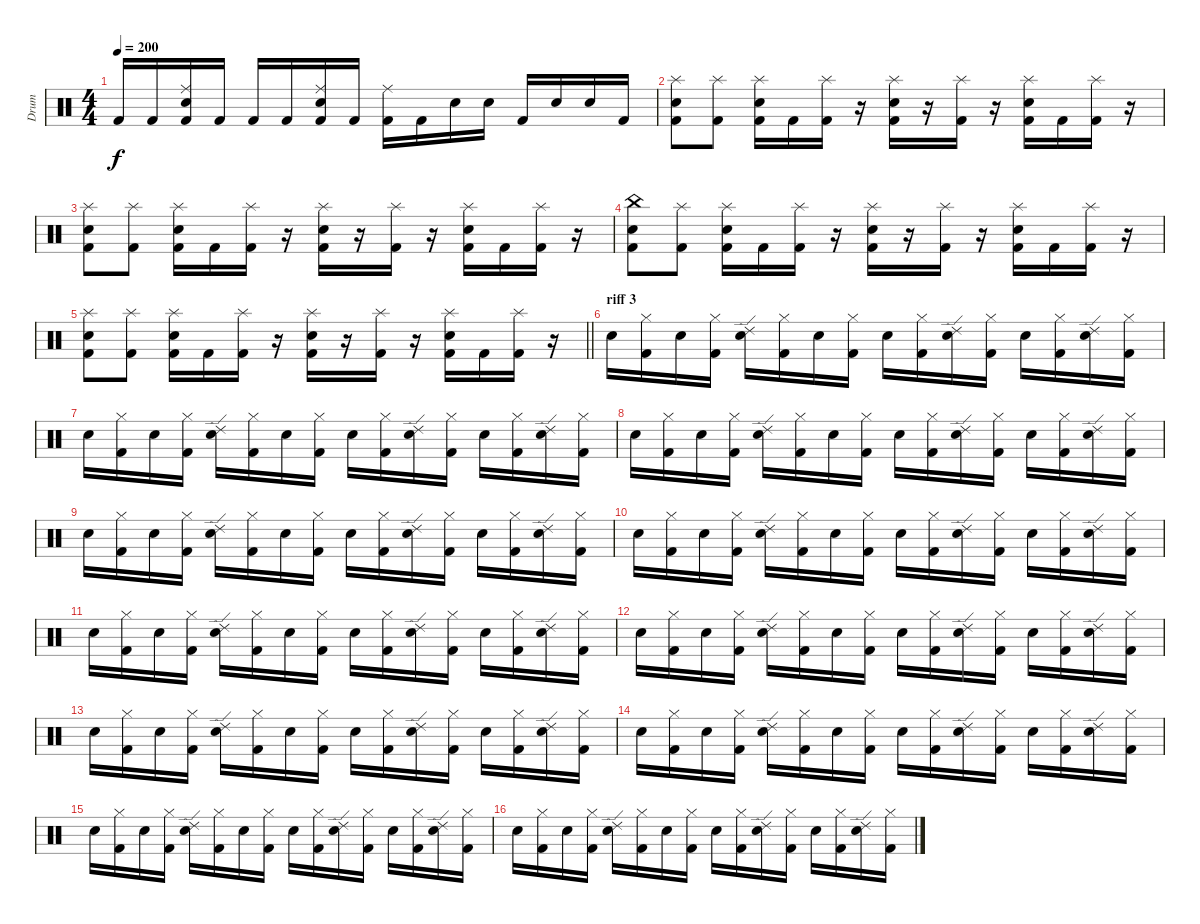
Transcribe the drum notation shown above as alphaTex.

\track ("Drum" "Drum") {instrument percussion}
\staff {score}
\articulation defaults
\ts (4 4)
\tempo 200
\clef neutral
\ks c "Kick (hit) 2".16{dy f} "Kick (hit) 2".16
("Ride (middle)" "Electric Snare (hit)" "Kick (hit) 2").16 "Kick (hit) 2".16 "Kick (hit) 2".16 "Kick (hit) 2".16 ("Ride (middle)" "Electric Snare (hit)" "Kick (hit) 2").16 "Kick (hit) 2".16 ("Ride (middle)" "Kick (hit) 2").16 "Kick (hit) 2".16 "Electric Snare (hit)".16 "Electric Snare (hit)".16 "Kick (hit) 2".16 "Electric Snare (hit)".16 "Electric Snare (hit)".16 "Kick (hit) 2".16 |
("Splash (hit)" "Electric Snare (hit)" "Kick (hit) 2").8 ("Splash (hit)" "Kick (hit) 2").8 ("Splash (hit)" "Electric Snare (hit)" "Kick (hit) 2").16 "Kick (hit) 2".16 ("Splash (hit)" "Kick (hit) 2").16 r.16 ("Splash (hit)" "Electric Snare (hit)" "Kick (hit) 2").16 r.16 ("Splash (hit)" "Kick (hit) 2").16 r.16 ("Splash (hit)" "Electric Snare (hit)" "Kick (hit) 2").16 "Kick (hit) 2".16 ("Splash (hit)" "Kick (hit) 2").16 r.16 |
("Splash (hit)" "Electric Snare (hit)" "Kick (hit) 2").8 ("Splash (hit)" "Kick (hit) 2").8 ("Splash (hit)" "Electric Snare (hit)" "Kick (hit) 2").16 "Kick (hit) 2".16 ("Splash (hit)" "Kick (hit) 2").16 r.16 ("Splash (hit)" "Electric Snare (hit)" "Kick (hit) 2").16 r.16 ("Splash (hit)" "Kick (hit) 2").16 r.16 ("Splash (hit)" "Electric Snare (hit)" "Kick (hit) 2").16 "Kick (hit) 2".16 ("Splash (hit)" "Kick (hit) 2").16 r.16 |
("China (hit)" "Electric Snare (hit)" "Kick (hit) 2").8 ("Splash (hit)" "Kick (hit) 2").8 ("Splash (hit)" "Electric Snare (hit)" "Kick (hit) 2").16 "Kick (hit) 2".16 ("Splash (hit)" "Kick (hit) 2").16 r.16 ("Splash (hit)" "Electric Snare (hit)" "Kick (hit) 2").16 r.16 ("Splash (hit)" "Kick (hit) 2").16 r.16 ("Splash (hit)" "Electric Snare (hit)" "Kick (hit) 2").16 "Kick (hit) 2".16 ("Splash (hit)" "Kick (hit) 2").16 r.16 |
\barLineRight lightlight
("Splash (hit)" "Electric Snare (hit)" "Kick (hit) 2").8 ("Splash (hit)" "Kick (hit) 2").8 ("Splash (hit)" "Electric Snare (hit)" "Kick (hit) 2").16 "Kick (hit) 2".16 ("Splash (hit)" "Kick (hit) 2").16 r.16 ("Splash (hit)" "Electric Snare (hit)" "Kick (hit) 2").16 r.16 ("Splash (hit)" "Kick (hit) 2").16 r.16 ("Splash (hit)" "Electric Snare (hit)" "Kick (hit) 2").16 "Kick (hit) 2".16 ("Splash (hit)" "Kick (hit) 2").16 r.16 |
\section ("" "riff 3")
"Electric Snare (hit)".16 ("Hi-Hat (closed)" "Kick (hit) 2").16 "Electric Snare (hit)".16 ("Hi-Hat (closed)" "Kick (hit) 2").16 ("Ride (edge) 2" "Electric Snare (hit)").16 ("Hi-Hat (closed)" "Kick (hit) 2").16 "Electric Snare (hit)".16 ("Hi-Hat (closed)" "Kick (hit) 2").16 "Electric Snare (hit)".16 ("Hi-Hat (closed)" "Kick (hit) 2").16 ("Ride (edge) 2" "Electric Snare (hit)").16 ("Hi-Hat (closed)" "Kick (hit) 2").16 "Electric Snare (hit)".16 ("Hi-Hat (closed)" "Kick (hit) 2").16 ("Ride (edge) 2" "Electric Snare (hit)").16 ("Hi-Hat (closed)" "Kick (hit) 2").16 |
"Electric Snare (hit)".16 ("Hi-Hat (closed)" "Kick (hit) 2").16 "Electric Snare (hit)".16 ("Hi-Hat (closed)" "Kick (hit) 2").16 ("Ride (edge) 2" "Electric Snare (hit)").16 ("Hi-Hat (closed)" "Kick (hit) 2").16 "Electric Snare (hit)".16 ("Hi-Hat (closed)" "Kick (hit) 2").16 "Electric Snare (hit)".16 ("Hi-Hat (closed)" "Kick (hit) 2").16 ("Ride (edge) 2" "Electric Snare (hit)").16 ("Hi-Hat (closed)" "Kick (hit) 2").16 "Electric Snare (hit)".16 ("Hi-Hat (closed)" "Kick (hit) 2").16 ("Ride (edge) 2" "Electric Snare (hit)").16 ("Hi-Hat (closed)" "Kick (hit) 2").16 |
"Electric Snare (hit)".16 ("Hi-Hat (closed)" "Kick (hit) 2").16 "Electric Snare (hit)".16 ("Hi-Hat (closed)" "Kick (hit) 2").16 ("Ride (edge) 2" "Electric Snare (hit)").16 ("Hi-Hat (closed)" "Kick (hit) 2").16 "Electric Snare (hit)".16 ("Hi-Hat (closed)" "Kick (hit) 2").16 "Electric Snare (hit)".16 ("Hi-Hat (closed)" "Kick (hit) 2").16 ("Ride (edge) 2" "Electric Snare (hit)").16 ("Hi-Hat (closed)" "Kick (hit) 2").16 "Electric Snare (hit)".16 ("Hi-Hat (closed)" "Kick (hit) 2").16 ("Ride (edge) 2" "Electric Snare (hit)").16 ("Hi-Hat (closed)" "Kick (hit) 2").16 |
"Electric Snare (hit)".16 ("Hi-Hat (closed)" "Kick (hit) 2").16 "Electric Snare (hit)".16 ("Hi-Hat (closed)" "Kick (hit) 2").16 ("Ride (edge) 2" "Electric Snare (hit)").16 ("Hi-Hat (closed)" "Kick (hit) 2").16 "Electric Snare (hit)".16 ("Hi-Hat (closed)" "Kick (hit) 2").16 "Electric Snare (hit)".16 ("Hi-Hat (closed)" "Kick (hit) 2").16 ("Ride (edge) 2" "Electric Snare (hit)").16 ("Hi-Hat (closed)" "Kick (hit) 2").16 "Electric Snare (hit)".16 ("Hi-Hat (closed)" "Kick (hit) 2").16 ("Ride (edge) 2" "Electric Snare (hit)").16 ("Hi-Hat (closed)" "Kick (hit) 2").16 |
"Electric Snare (hit)".16 ("Hi-Hat (closed)" "Kick (hit) 2").16 "Electric Snare (hit)".16 ("Hi-Hat (closed)" "Kick (hit) 2").16 ("Ride (edge) 2" "Electric Snare (hit)").16 ("Hi-Hat (closed)" "Kick (hit) 2").16 "Electric Snare (hit)".16 ("Hi-Hat (closed)" "Kick (hit) 2").16 "Electric Snare (hit)".16 ("Hi-Hat (closed)" "Kick (hit) 2").16 ("Ride (edge) 2" "Electric Snare (hit)").16 ("Hi-Hat (closed)" "Kick (hit) 2").16 "Electric Snare (hit)".16 ("Hi-Hat (closed)" "Kick (hit) 2").16 ("Ride (edge) 2" "Electric Snare (hit)").16 ("Hi-Hat (closed)" "Kick (hit) 2").16 |
"Electric Snare (hit)".16 ("Hi-Hat (closed)" "Kick (hit) 2").16 "Electric Snare (hit)".16 ("Hi-Hat (closed)" "Kick (hit) 2").16 ("Ride (edge) 2" "Electric Snare (hit)").16 ("Hi-Hat (closed)" "Kick (hit) 2").16 "Electric Snare (hit)".16 ("Hi-Hat (closed)" "Kick (hit) 2").16 "Electric Snare (hit)".16 ("Hi-Hat (closed)" "Kick (hit) 2").16 ("Ride (edge) 2" "Electric Snare (hit)").16 ("Hi-Hat (closed)" "Kick (hit) 2").16 "Electric Snare (hit)".16 ("Hi-Hat (closed)" "Kick (hit) 2").16 ("Ride (edge) 2" "Electric Snare (hit)").16 ("Hi-Hat (closed)" "Kick (hit) 2").16 |
"Electric Snare (hit)".16 ("Hi-Hat (closed)" "Kick (hit) 2").16 "Electric Snare (hit)".16 ("Hi-Hat (closed)" "Kick (hit) 2").16 ("Ride (edge) 2" "Electric Snare (hit)").16 ("Hi-Hat (closed)" "Kick (hit) 2").16 "Electric Snare (hit)".16 ("Hi-Hat (closed)" "Kick (hit) 2").16 "Electric Snare (hit)".16 ("Hi-Hat (closed)" "Kick (hit) 2").16 ("Ride (edge) 2" "Electric Snare (hit)").16 ("Hi-Hat (closed)" "Kick (hit) 2").16 "Electric Snare (hit)".16 ("Hi-Hat (closed)" "Kick (hit) 2").16 ("Ride (edge) 2" "Electric Snare (hit)").16 ("Hi-Hat (closed)" "Kick (hit) 2").16 |
"Electric Snare (hit)".16 ("Hi-Hat (closed)" "Kick (hit) 2").16 "Electric Snare (hit)".16 ("Hi-Hat (closed)" "Kick (hit) 2").16 ("Ride (edge) 2" "Electric Snare (hit)").16 ("Hi-Hat (closed)" "Kick (hit) 2").16 "Electric Snare (hit)".16 ("Hi-Hat (closed)" "Kick (hit) 2").16 "Electric Snare (hit)".16 ("Hi-Hat (closed)" "Kick (hit) 2").16 ("Ride (edge) 2" "Electric Snare (hit)").16 ("Hi-Hat (closed)" "Kick (hit) 2").16 "Electric Snare (hit)".16 ("Hi-Hat (closed)" "Kick (hit) 2").16 ("Ride (edge) 2" "Electric Snare (hit)").16 ("Hi-Hat (closed)" "Kick (hit) 2").16 |
"Electric Snare (hit)".16 ("Hi-Hat (closed)" "Kick (hit) 2").16 "Electric Snare (hit)".16 ("Hi-Hat (closed)" "Kick (hit) 2").16 ("Ride (edge) 2" "Electric Snare (hit)").16 ("Hi-Hat (closed)" "Kick (hit) 2").16 "Electric Snare (hit)".16 ("Hi-Hat (closed)" "Kick (hit) 2").16 "Electric Snare (hit)".16 ("Hi-Hat (closed)" "Kick (hit) 2").16 ("Ride (edge) 2" "Electric Snare (hit)").16 ("Hi-Hat (closed)" "Kick (hit) 2").16 "Electric Snare (hit)".16 ("Hi-Hat (closed)" "Kick (hit) 2").16 ("Ride (edge) 2" "Electric Snare (hit)").16 ("Hi-Hat (closed)" "Kick (hit) 2").16 |
"Electric Snare (hit)".16 ("Hi-Hat (closed)" "Kick (hit) 2").16 "Electric Snare (hit)".16 ("Hi-Hat (closed)" "Kick (hit) 2").16 ("Ride (edge) 2" "Electric Snare (hit)").16 ("Hi-Hat (closed)" "Kick (hit) 2").16 "Electric Snare (hit)".16 ("Hi-Hat (closed)" "Kick (hit) 2").16 "Electric Snare (hit)".16 ("Hi-Hat (closed)" "Kick (hit) 2").16 ("Ride (edge) 2" "Electric Snare (hit)").16 ("Hi-Hat (closed)" "Kick (hit) 2").16 "Electric Snare (hit)".16 ("Hi-Hat (closed)" "Kick (hit) 2").16 ("Ride (edge) 2" "Electric Snare (hit)").16 ("Hi-Hat (closed)" "Kick (hit) 2").16 |
"Electric Snare (hit)".16 ("Hi-Hat (closed)" "Kick (hit) 2").16 "Electric Snare (hit)".16 ("Hi-Hat (closed)" "Kick (hit) 2").16 ("Ride (edge) 2" "Electric Snare (hit)").16 ("Hi-Hat (closed)" "Kick (hit) 2").16 "Electric Snare (hit)".16 ("Hi-Hat (closed)" "Kick (hit) 2").16 "Electric Snare (hit)".16 ("Hi-Hat (closed)" "Kick (hit) 2").16 ("Ride (edge) 2" "Electric Snare (hit)").16 ("Hi-Hat (closed)" "Kick (hit) 2").16 "Electric Snare (hit)".16 ("Hi-Hat (closed)" "Kick (hit) 2").16 ("Ride (edge) 2" "Electric Snare (hit)").16 ("Hi-Hat (closed)" "Kick (hit) 2").16
